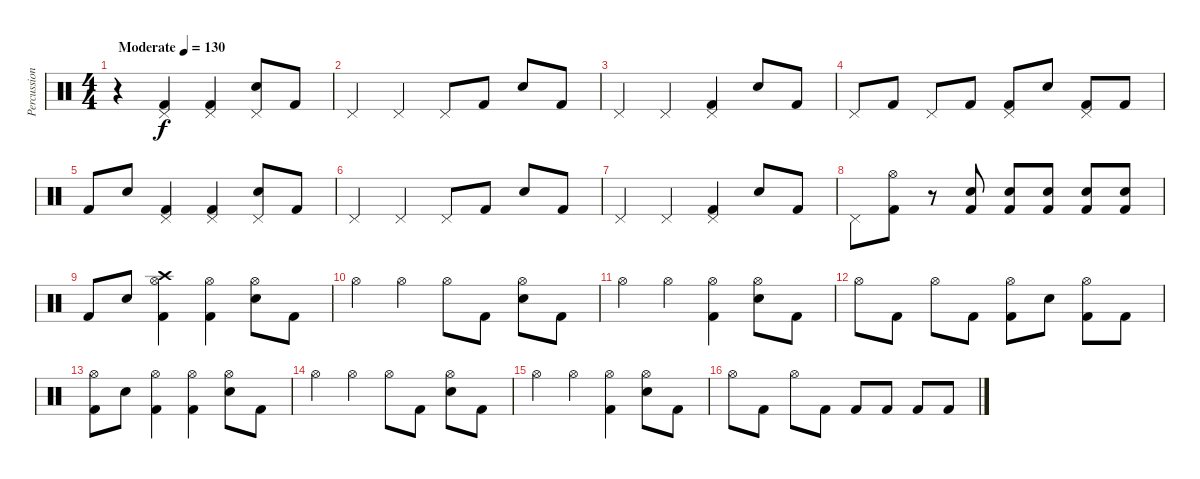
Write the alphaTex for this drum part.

\track ("Percussion" "Percussion") {instrument percussion}
\staff {score}
\articulation defaults
\ts (4 4)
\tempo (130 "Moderate")
\clef neutral
\ks c
r.4{dy f} ("Pedal Hi-Hat (hit)" "Kick (hit) 2").4 ("Pedal Hi-Hat (hit)" "Kick (hit) 2").4 ("Pedal Hi-Hat (hit)" "Snare (hit) 2").8 "Kick (hit) 2".8 |
"Pedal Hi-Hat (hit)".4 "Pedal Hi-Hat (hit)".4 "Pedal Hi-Hat (hit)".8 "Kick (hit) 2".8 "Snare (hit) 2".8 "Kick (hit) 2".8 |
"Pedal Hi-Hat (hit)".4 "Pedal Hi-Hat (hit)".4 ("Pedal Hi-Hat (hit)" "Kick (hit) 2").4 "Snare (hit) 2".8 "Kick (hit) 2".8 |
"Pedal Hi-Hat (hit)".8 "Kick (hit) 2".8 "Pedal Hi-Hat (hit)".8 "Kick (hit) 2".8 ("Pedal Hi-Hat (hit)" "Kick (hit) 2").8 "Snare (hit) 2".8 ("Pedal Hi-Hat (hit)" "Kick (hit) 2").8 "Kick (hit) 2".8 |
"Kick (hit) 2".8 "Snare (hit) 2".8 ("Pedal Hi-Hat (hit)" "Kick (hit) 2").4 ("Pedal Hi-Hat (hit)" "Kick (hit) 2").4 ("Pedal Hi-Hat (hit)" "Snare (hit) 2").8 "Kick (hit) 2".8 |
"Pedal Hi-Hat (hit)".4 "Pedal Hi-Hat (hit)".4 "Pedal Hi-Hat (hit)".8 "Kick (hit) 2".8 "Snare (hit) 2".8 "Kick (hit) 2".8 |
"Pedal Hi-Hat (hit)".4 "Pedal Hi-Hat (hit)".4 ("Pedal Hi-Hat (hit)" "Kick (hit) 2").4 "Snare (hit) 2".8 "Kick (hit) 2".8 |
"Pedal Hi-Hat (hit)".8 ("Hi-Hat (open)" "Kick (hit) 2").8 r.8 ("Snare (hit) 2" "Kick (hit) 2").8 ("Snare (hit) 2" "Kick (hit) 2").8 ("Snare (hit) 2" "Kick (hit) 2").8 ("Snare (hit) 2" "Kick (hit) 2").8 ("Snare (hit) 2" "Kick (hit) 2").8 |
"Kick (hit) 2".8 "Snare (hit) 2".8 ("Crash high (hit)" "Hi-Hat (open)" "Kick (hit) 2").4 ("Hi-Hat (open)" "Kick (hit) 2").4 ("Hi-Hat (open)" "Snare (hit) 2").8 "Kick (hit) 2".8 |
"Hi-Hat (open)".4 "Hi-Hat (open)".4 "Hi-Hat (open)".8 "Kick (hit) 2".8 ("Hi-Hat (open)" "Snare (hit) 2").8 "Kick (hit) 2".8 |
"Hi-Hat (open)".4 "Hi-Hat (open)".4 ("Hi-Hat (open)" "Kick (hit) 2").4 ("Hi-Hat (open)" "Snare (hit) 2").8 "Kick (hit) 2".8 |
"Hi-Hat (open)".8 "Kick (hit) 2".8 "Hi-Hat (open)".8 "Kick (hit) 2".8 ("Hi-Hat (open)" "Kick (hit) 2").8 "Snare (hit) 2".8 ("Hi-Hat (open)" "Kick (hit) 2").8 "Kick (hit) 2".8 |
("Hi-Hat (open)" "Kick (hit) 2").8 "Snare (hit) 2".8 ("Hi-Hat (open)" "Kick (hit) 2").4 ("Hi-Hat (open)" "Kick (hit) 2").4 ("Hi-Hat (open)" "Snare (hit) 2").8 "Kick (hit) 2".8 |
"Hi-Hat (open)".4 "Hi-Hat (open)".4 "Hi-Hat (open)".8 "Kick (hit) 2".8 ("Hi-Hat (open)" "Snare (hit) 2").8 "Kick (hit) 2".8 |
"Hi-Hat (open)".4 "Hi-Hat (open)".4 ("Hi-Hat (open)" "Kick (hit) 2").4 ("Hi-Hat (open)" "Snare (hit) 2").8 "Kick (hit) 2".8 |
"Hi-Hat (open)".8 "Kick (hit) 2".8 "Hi-Hat (open)".8 "Kick (hit) 2".8 "Kick (hit) 2".8 "Kick (hit) 2".8 "Kick (hit) 2".8 "Kick (hit) 2".8
